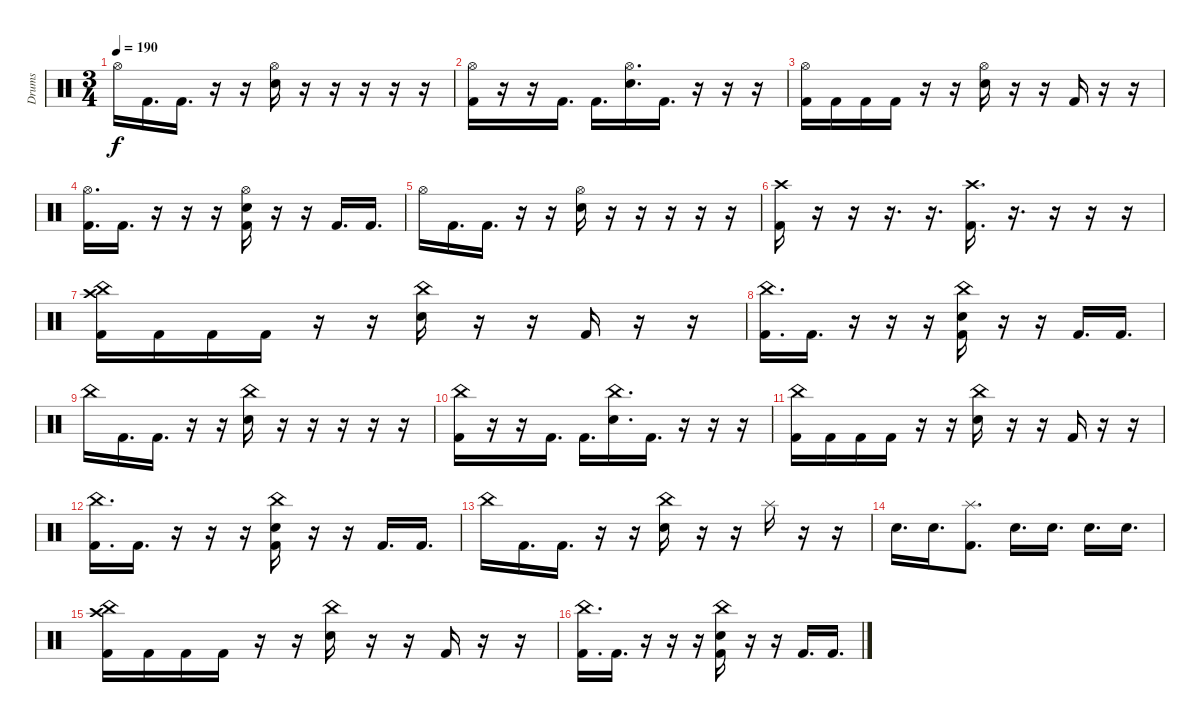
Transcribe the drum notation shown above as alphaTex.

\track ("Drums" "Drums") {instrument percussion}
\staff {score}
\articulation defaults
\ts (3 4)
\tempo 190
\clef neutral
\ks c "Hi-Hat (open)".16{dy f} "Kick (hit) 2".16{d} "Kick (hit) 2".16{d}
r.16 r.16 ("Hi-Hat (open)" "Electric Snare (hit)").16 r.16 r.16 r.16 r.16 r.16 |
("Hi-Hat (open)" "Kick (hit) 2").16 r.16 r.16 "Kick (hit) 2".16{d} "Kick (hit) 2".16{d} ("Hi-Hat (open)" "Electric Snare (hit)").16{d} "Kick (hit) 2".16{d} r.16 r.16 r.16 |
("Hi-Hat (open)" "Kick (hit) 2").16 "Kick (hit) 2".16 "Kick (hit) 2".16 "Kick (hit) 2".16 r.16 r.16 ("Hi-Hat (open)" "Electric Snare (hit)").16 r.16 r.16 "Kick (hit) 2".16 r.16 r.16 |
("Hi-Hat (open)" "Kick (hit) 2").16{d} "Kick (hit) 2".16{d} r.16 r.16 r.16 ("Hi-Hat (open)" "Electric Snare (hit)" "Kick (hit) 2").16 r.16 r.16 "Kick (hit) 2".16{d} "Kick (hit) 2".16{d} |
"Hi-Hat (open)".16 "Kick (hit) 2".16{d} "Kick (hit) 2".16{d} r.16 r.16 ("Hi-Hat (open)" "Electric Snare (hit)").16 r.16 r.16 r.16 r.16 r.16 |
("Crash high (hit)" "Kick (hit) 2").16 r.16 r.16 r.16{d} r.16{d} ("Crash high (hit)" "Kick (hit) 2").16{d} r.16{d} r.16 r.16 r.16 |
("Crash high (hit)" "China (hit)" "Kick (hit) 2").16 "Kick (hit) 2".16 "Kick (hit) 2".16 "Kick (hit) 2".16 r.16 r.16 ("China (hit)" "Electric Snare (hit)").16 r.16 r.16 "Kick (hit) 2".16 r.16 r.16 |
("China (hit)" "Kick (hit) 2").16{d} "Kick (hit) 2".16{d} r.16 r.16 r.16 ("China (hit)" "Electric Snare (hit)" "Kick (hit) 2").16 r.16 r.16 "Kick (hit) 2".16{d} "Kick (hit) 2".16{d} |
"China (hit)".16 "Kick (hit) 2".16{d} "Kick (hit) 2".16{d} r.16 r.16 ("China (hit)" "Electric Snare (hit)").16 r.16 r.16 r.16 r.16 r.16 |
("China (hit)" "Kick (hit) 2").16 r.16 r.16 "Kick (hit) 2".16{d} "Kick (hit) 2".16{d} ("China (hit)" "Electric Snare (hit)").16{d} "Kick (hit) 2".16{d} r.16 r.16 r.16 |
("China (hit)" "Kick (hit) 2").16 "Kick (hit) 2".16 "Kick (hit) 2".16 "Kick (hit) 2".16 r.16 r.16 ("China (hit)" "Electric Snare (hit)").16 r.16 r.16 "Kick (hit) 2".16 r.16 r.16 |
("China (hit)" "Kick (hit) 2").16{d} "Kick (hit) 2".16{d} r.16 r.16 r.16 ("China (hit)" "Electric Snare (hit)" "Kick (hit) 2").16 r.16 r.16 "Kick (hit) 2".16{d} "Kick (hit) 2".16{d} |
"China (hit)".16 "Kick (hit) 2".16{d} "Kick (hit) 2".16{d} r.16 r.16 ("China (hit)" "Electric Snare (hit)").16 r.16 r.16 "Splash (hit)".16 r.16 r.16 |
"Electric Snare (hit)".16{d} "Electric Snare (hit)".16{d} ("Splash (hit)" "Kick (hit) 2").8{d} "Electric Snare (hit)".16{d} "Electric Snare (hit)".16{d} "Electric Snare (hit)".16{d} "Electric Snare (hit)".16{d} |
("Crash high (hit)" "China (hit)" "Kick (hit) 2").16 "Kick (hit) 2".16 "Kick (hit) 2".16 "Kick (hit) 2".16 r.16 r.16 ("China (hit)" "Electric Snare (hit)").16 r.16 r.16 "Kick (hit) 2".16 r.16 r.16 |
("China (hit)" "Kick (hit) 2").16{d} "Kick (hit) 2".16{d} r.16 r.16 r.16 ("China (hit)" "Electric Snare (hit)" "Kick (hit) 2").16 r.16 r.16 "Kick (hit) 2".16{d} "Kick (hit) 2".16{d}
